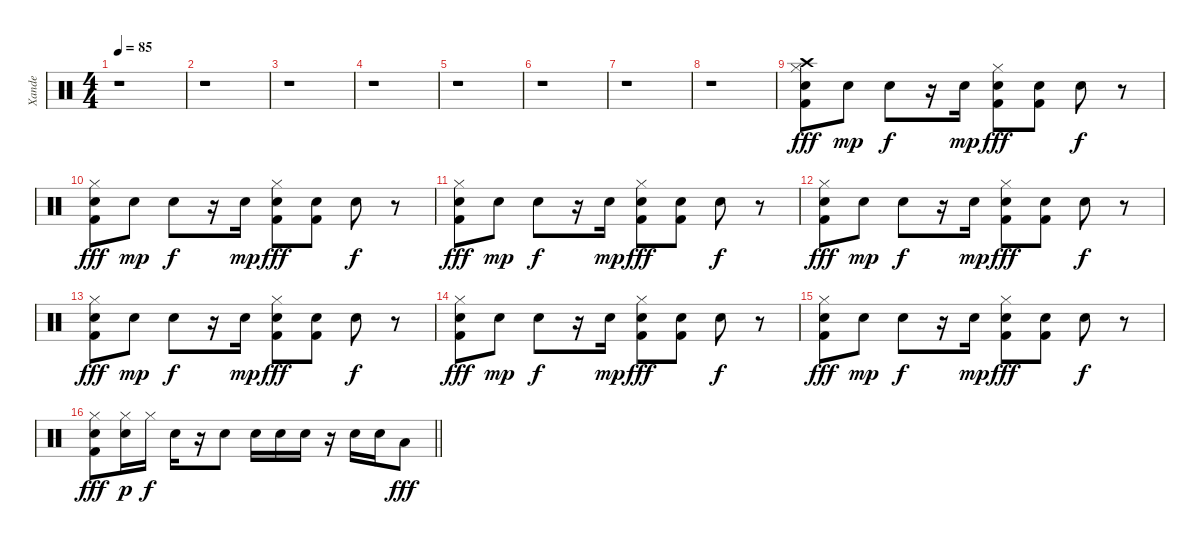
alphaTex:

\track ("Xande" "Xande") {instrument percussion}
\staff {score}
\articulation defaults
\ts (4 4)
\tempo 85
\clef neutral
\ks c
r.1{dy f} |
r.1 |
r.1 |
r.1 |
r.1 |
r.1 |
r.1 |
r.1 |
("Crash high (hit)" "Hi-Hat (closed)" "Snare (hit) 2" "Kick (hit) 2").8{dy fff} "Snare (hit) 2".8{dy mp} "Electric Snare (hit)".8{dy f} r.16 "Snare (hit) 2".16{dy mp} ("Hi-Hat (closed)" "Snare (hit) 2" "Kick (hit) 2").8{dy fff} ("Snare (hit) 2" "Kick (hit) 2").8 "Electric Snare (hit)".8{dy f} r.8 |
("Hi-Hat (closed)" "Snare (hit) 2" "Kick (hit) 2").8{dy fff} "Snare (hit) 2".8{dy mp} "Electric Snare (hit)".8{dy f} r.16 "Snare (hit) 2".16{dy mp} ("Hi-Hat (closed)" "Snare (hit) 2" "Kick (hit) 2").8{dy fff} ("Snare (hit) 2" "Kick (hit) 2").8 "Electric Snare (hit)".8{dy f} r.8 |
("Hi-Hat (closed)" "Snare (hit) 2" "Kick (hit) 2").8{dy fff} "Snare (hit) 2".8{dy mp} "Electric Snare (hit)".8{dy f} r.16 "Snare (hit) 2".16{dy mp} ("Hi-Hat (closed)" "Snare (hit) 2" "Kick (hit) 2").8{dy fff} ("Snare (hit) 2" "Kick (hit) 2").8 "Electric Snare (hit)".8{dy f} r.8 |
("Hi-Hat (closed)" "Snare (hit) 2" "Kick (hit) 2").8{dy fff} "Snare (hit) 2".8{dy mp} "Electric Snare (hit)".8{dy f} r.16 "Snare (hit) 2".16{dy mp} ("Hi-Hat (closed)" "Snare (hit) 2" "Kick (hit) 2").8{dy fff} ("Snare (hit) 2" "Kick (hit) 2").8 "Electric Snare (hit)".8{dy f} r.8 |
("Hi-Hat (closed)" "Snare (hit) 2" "Kick (hit) 2").8{dy fff} "Snare (hit) 2".8{dy mp} "Electric Snare (hit)".8{dy f} r.16 "Snare (hit) 2".16{dy mp} ("Hi-Hat (closed)" "Snare (hit) 2" "Kick (hit) 2").8{dy fff} ("Snare (hit) 2" "Kick (hit) 2").8 "Electric Snare (hit)".8{dy f} r.8 |
("Hi-Hat (closed)" "Snare (hit) 2" "Kick (hit) 2").8{dy fff} "Snare (hit) 2".8{dy mp} "Electric Snare (hit)".8{dy f} r.16 "Snare (hit) 2".16{dy mp} ("Hi-Hat (closed)" "Snare (hit) 2" "Kick (hit) 2").8{dy fff} ("Snare (hit) 2" "Kick (hit) 2").8 "Electric Snare (hit)".8{dy f} r.8 |
("Hi-Hat (closed)" "Snare (hit) 2" "Kick (hit) 2").8{dy fff} "Snare (hit) 2".8{dy mp} "Electric Snare (hit)".8{dy f} r.16 "Snare (hit) 2".16{dy mp} ("Hi-Hat (closed)" "Snare (hit) 2" "Kick (hit) 2").8{dy fff} ("Snare (hit) 2" "Kick (hit) 2").8 "Electric Snare (hit)".8{dy f} r.8 |
\barLineRight lightlight
("Hi-Hat (closed)" "Snare (hit) 2" "Kick (hit) 2").8{dy fff} ("Hi-Hat (closed)" "Snare (hit) 2").16{dy p} "Hi-Hat (closed)".16{dy f} "Electric Snare (hit)".16 r.16 "Snare (hit) 2".8 "Snare (hit) 2".16 "Snare (hit) 2".16 "Snare (hit) 2".16 r.16 "Snare (hit) 2".16 "Snare (hit) 2".16 "Low Tom (hit)".8{dy fff}
